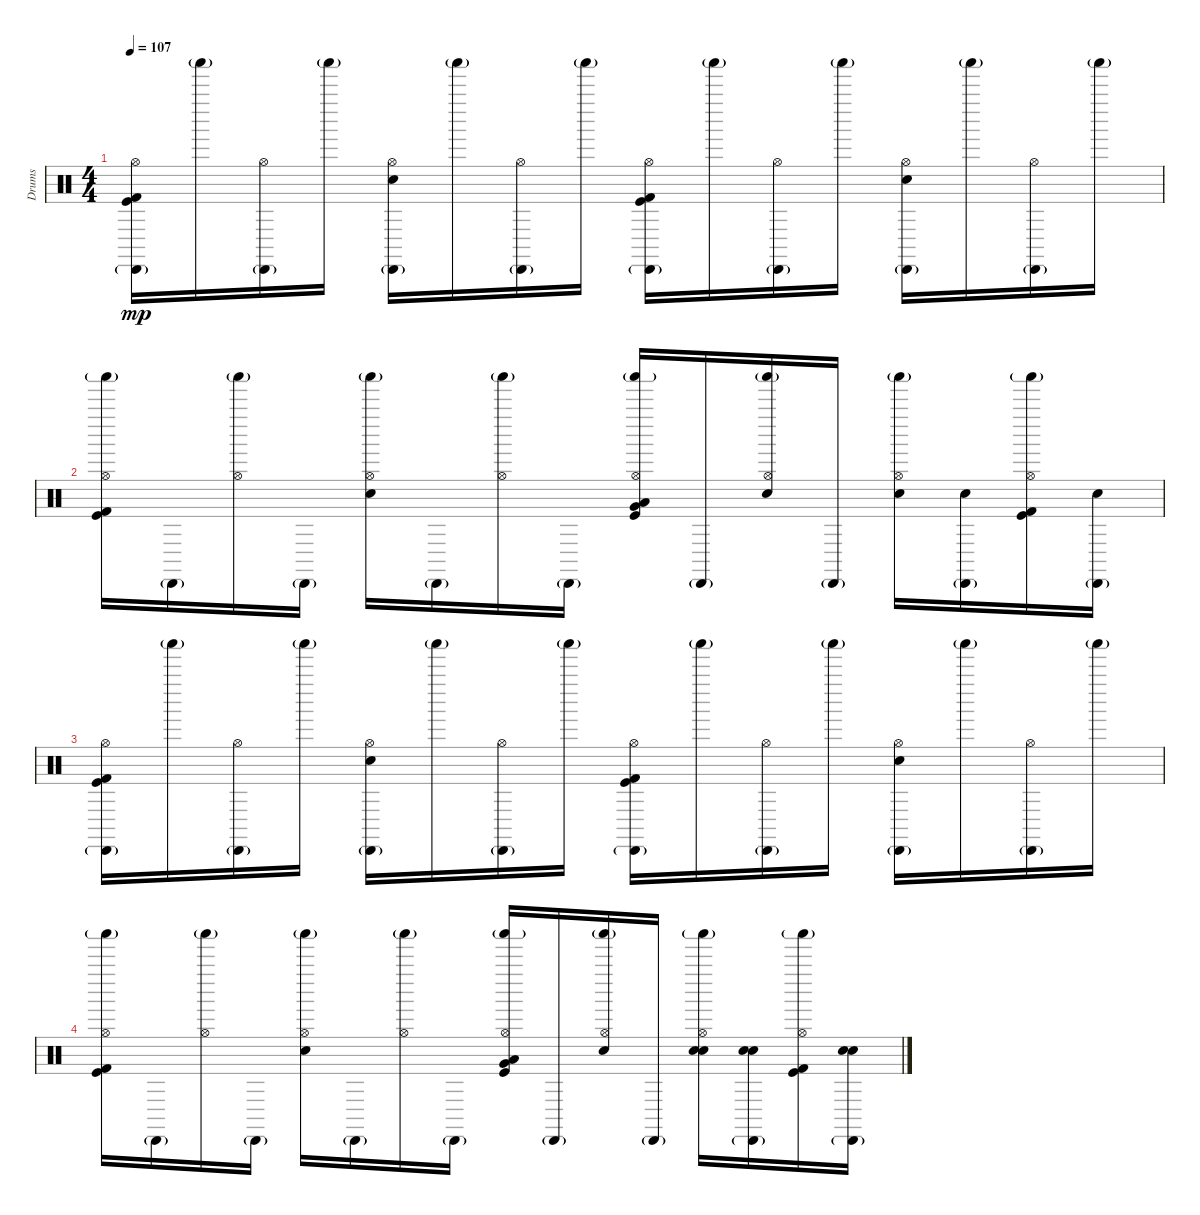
\track ("Drums" "Drums") {instrument percussion}
\staff {score}
\articulation defaults
\ts (4 4)
\tempo 107
\clef neutral
\ks c
("Hi-Hat (open)" "Cabasa (hit)"{g} "Kick (hit) 2" "Kick (hit)").16{dy mp} "Shaker (hit)"{g}.16 ("Hi-Hat (open)" "Cabasa (hit)"{g}).16 "Shaker (hit)"{g}.16 ("Hi-Hat (open)" "Cabasa (hit)"{g} "Electric Snare (hit)").16 "Shaker (hit)"{g}.16 ("Hi-Hat (open)" "Cabasa (hit)"{g}).16 "Shaker (hit)"{g}.16 ("Hi-Hat (open)" "Cabasa (hit)"{g} "Kick (hit) 2" "Kick (hit)").16 "Shaker (hit)"{g}.16 ("Hi-Hat (open)" "Cabasa (hit)"{g}).16 "Shaker (hit)"{g}.16 ("Hi-Hat (open)" "Cabasa (hit)"{g} "Electric Snare (hit)").16 "Shaker (hit)"{g}.16 ("Hi-Hat (open)" "Cabasa (hit)"{g}).16 "Shaker (hit)"{g}.16 |
("Hi-Hat (open)" "Shaker (hit)"{g} "Kick (hit) 2" "Kick (hit)").16 "Cabasa (hit)"{g}.16 ("Hi-Hat (open)" "Shaker (hit)"{g}).16 "Cabasa (hit)"{g}.16 ("Hi-Hat (open)" "Shaker (hit)"{g} "Electric Snare (hit)").16 "Cabasa (hit)"{g}.16 ("Hi-Hat (open)" "Shaker (hit)"{g}).16 "Cabasa (hit)"{g}.16 ("Hi-Hat (open)" "Shaker (hit)"{g} "Kick (hit)" "Very Low Tom (hit)" "Low Tom (hit)").16 "Cabasa (hit)"{g}.16 ("Hi-Hat (open)" "Shaker (hit)"{g} "Electric Snare (hit)").16 "Cabasa (hit)"{g}.16 ("Hi-Hat (open)" "Shaker (hit)"{g} "Electric Snare (hit)").16 ("Cabasa (hit)"{g} "Electric Snare (hit)").16 ("Hi-Hat (open)" "Shaker (hit)"{g} "Kick (hit) 2" "Kick (hit)").16 ("Cabasa (hit)"{g} "Electric Snare (hit)").16 |
("Hi-Hat (open)" "Cabasa (hit)"{g} "Kick (hit) 2" "Kick (hit)").16 "Shaker (hit)"{g}.16 ("Hi-Hat (open)" "Cabasa (hit)"{g}).16 "Shaker (hit)"{g}.16 ("Hi-Hat (open)" "Cabasa (hit)"{g} "Electric Snare (hit)").16 "Shaker (hit)"{g}.16 ("Hi-Hat (open)" "Cabasa (hit)"{g}).16 "Shaker (hit)"{g}.16 ("Hi-Hat (open)" "Cabasa (hit)"{g} "Kick (hit) 2" "Kick (hit)").16 "Shaker (hit)"{g}.16 ("Hi-Hat (open)" "Cabasa (hit)"{g}).16 "Shaker (hit)"{g}.16 ("Hi-Hat (open)" "Cabasa (hit)"{g} "Electric Snare (hit)").16 "Shaker (hit)"{g}.16 ("Hi-Hat (open)" "Cabasa (hit)"{g}).16 "Shaker (hit)"{g}.16 |
("Hi-Hat (open)" "Shaker (hit)"{g} "Kick (hit) 2" "Kick (hit)").16 "Cabasa (hit)"{g}.16 ("Hi-Hat (open)" "Shaker (hit)"{g}).16 "Cabasa (hit)"{g}.16 ("Hi-Hat (open)" "Shaker (hit)"{g} "Electric Snare (hit)").16 "Cabasa (hit)"{g}.16 ("Hi-Hat (open)" "Shaker (hit)"{g}).16 "Cabasa (hit)"{g}.16 ("Hi-Hat (open)" "Shaker (hit)"{g} "Kick (hit)" "Very Low Tom (hit)" "Low Tom (hit)").16 "Cabasa (hit)"{g}.16 ("Hi-Hat (open)" "Shaker (hit)"{g} "Electric Snare (hit)").16 "Cabasa (hit)"{g}.16 ("Hi-Hat (open)" "Shaker (hit)"{g} "Snare (hit) 2" "Electric Snare (hit)").16 ("Cabasa (hit)"{g} "Snare (hit) 2" "Electric Snare (hit)").16 ("Hi-Hat (open)" "Shaker (hit)"{g} "Kick (hit) 2" "Kick (hit)").16 ("Cabasa (hit)"{g} "Snare (hit) 2" "Electric Snare (hit)").16
